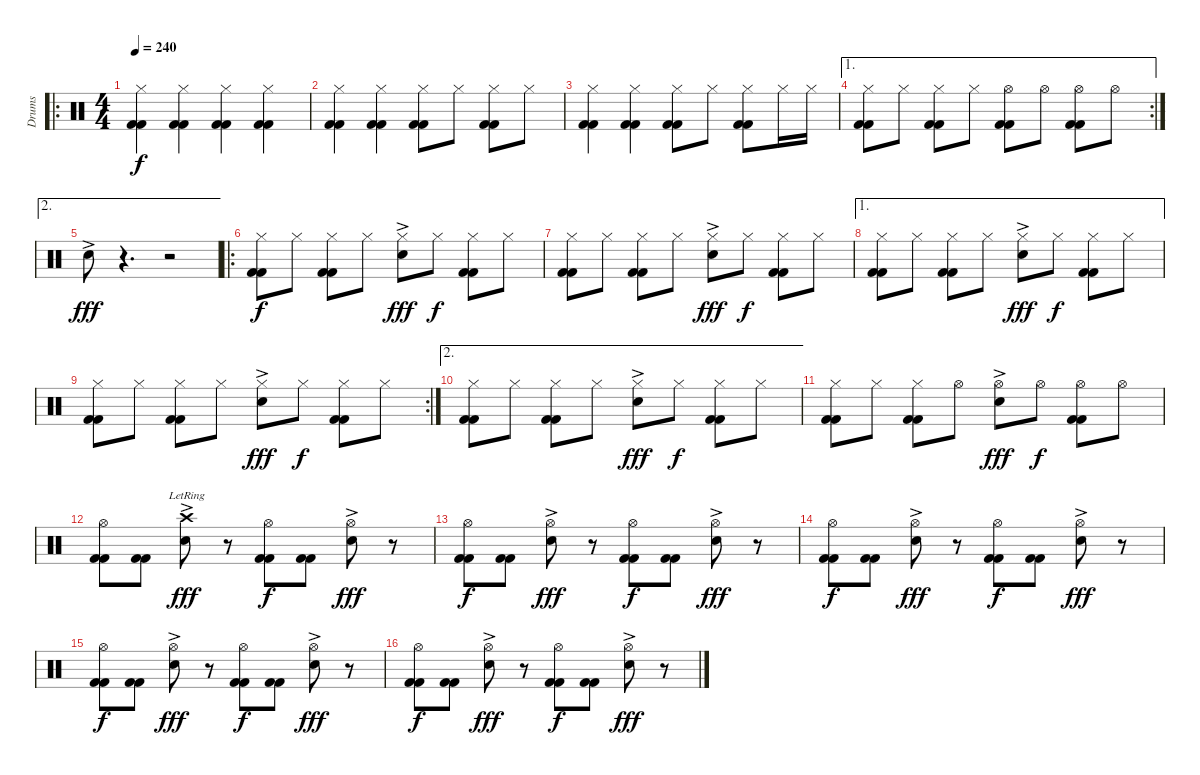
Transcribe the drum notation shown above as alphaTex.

\track ("Drums" "Drums") {instrument percussion}
\staff {score}
\articulation defaults
\ro
\ts (4 4)
\tempo 240
\clef neutral
\ks c
("Hi-Hat (closed)" "Kick (hit) 2" "Kick (hit) 2").4{dy f} ("Hi-Hat (closed)" "Kick (hit) 2" "Kick (hit) 2").4 ("Hi-Hat (closed)" "Kick (hit) 2" "Kick (hit) 2").4 ("Hi-Hat (closed)" "Kick (hit) 2" "Kick (hit) 2").4 |
("Hi-Hat (closed)" "Kick (hit) 2" "Kick (hit) 2").4 ("Hi-Hat (closed)" "Kick (hit) 2" "Kick (hit) 2").4 ("Hi-Hat (closed)" "Kick (hit) 2" "Kick (hit) 2").8 "Hi-Hat (closed)".8 ("Hi-Hat (closed)" "Kick (hit) 2" "Kick (hit) 2").8 "Hi-Hat (closed)".8 |
("Hi-Hat (closed)" "Kick (hit) 2" "Kick (hit) 2").4 ("Hi-Hat (closed)" "Kick (hit) 2" "Kick (hit) 2").4 ("Hi-Hat (closed)" "Kick (hit) 2" "Kick (hit) 2").8 "Hi-Hat (closed)".8 ("Hi-Hat (closed)" "Kick (hit) 2" "Kick (hit) 2").8 "Hi-Hat (closed)".16 "Hi-Hat (closed)".16 |
\ae 1
\rc 2
("Hi-Hat (closed)" "Kick (hit) 2" "Kick (hit) 2").8 "Hi-Hat (closed)".8 ("Hi-Hat (closed)" "Kick (hit) 2" "Kick (hit) 2").8 "Hi-Hat (closed)".8 ("Hi-Hat (open)" "Kick (hit) 2" "Kick (hit) 2").8 "Hi-Hat (open)".8 ("Hi-Hat (open)" "Kick (hit) 2" "Kick (hit) 2").8 "Hi-Hat (open)".8 |
\ae 2 "Electric Snare (hit)"{ac}.8{dy fff}
r.4{d} r.2 |
\ro
("Hi-Hat (closed)" "Kick (hit) 2" "Kick (hit) 2").8{dy f} "Hi-Hat (closed)".8 ("Hi-Hat (closed)" "Kick (hit) 2" "Kick (hit) 2").8 "Hi-Hat (closed)".8 ("Hi-Hat (closed)" "Electric Snare (hit)"{ac}).8{dy fff} "Hi-Hat (closed)".8{dy f} ("Hi-Hat (closed)" "Kick (hit) 2" "Kick (hit) 2").8 "Hi-Hat (closed)".8 |
("Hi-Hat (closed)" "Kick (hit) 2" "Kick (hit) 2").8 "Hi-Hat (closed)".8 ("Hi-Hat (closed)" "Kick (hit) 2" "Kick (hit) 2").8 "Hi-Hat (closed)".8 ("Hi-Hat (closed)" "Electric Snare (hit)"{ac}).8{dy fff} "Hi-Hat (closed)".8{dy f} ("Hi-Hat (closed)" "Kick (hit) 2" "Kick (hit) 2").8 "Hi-Hat (closed)".8 |
\ae 1
("Hi-Hat (closed)" "Kick (hit) 2" "Kick (hit) 2").8 "Hi-Hat (closed)".8 ("Hi-Hat (closed)" "Kick (hit) 2" "Kick (hit) 2").8 "Hi-Hat (closed)".8 ("Hi-Hat (closed)" "Electric Snare (hit)"{ac}).8{dy fff} "Hi-Hat (closed)".8{dy f} ("Hi-Hat (closed)" "Kick (hit) 2" "Kick (hit) 2").8 "Hi-Hat (closed)".8 |
\rc 2
("Hi-Hat (closed)" "Kick (hit) 2" "Kick (hit) 2").8 "Hi-Hat (closed)".8 ("Hi-Hat (closed)" "Kick (hit) 2" "Kick (hit) 2").8 "Hi-Hat (closed)".8 ("Hi-Hat (closed)" "Electric Snare (hit)"{ac}).8{dy fff} "Hi-Hat (closed)".8{dy f} ("Hi-Hat (closed)" "Kick (hit) 2" "Kick (hit) 2").8 "Hi-Hat (closed)".8 |
\ae 2
("Hi-Hat (closed)" "Kick (hit) 2" "Kick (hit) 2").8 "Hi-Hat (closed)".8 ("Hi-Hat (closed)" "Kick (hit) 2" "Kick (hit) 2").8 "Hi-Hat (closed)".8 ("Hi-Hat (closed)" "Electric Snare (hit)"{ac}).8{dy fff} "Hi-Hat (closed)".8{dy f} ("Hi-Hat (closed)" "Kick (hit) 2" "Kick (hit) 2").8 "Hi-Hat (closed)".8 |
("Hi-Hat (closed)" "Kick (hit) 2" "Kick (hit) 2").8 "Hi-Hat (closed)".8 ("Hi-Hat (closed)" "Kick (hit) 2" "Kick (hit) 2").8 "Hi-Hat (open)".8 ("Hi-Hat (open)" "Electric Snare (hit)"{ac}).8{dy fff} "Hi-Hat (open)".8{dy f} ("Hi-Hat (open)" "Kick (hit) 2" "Kick (hit) 2").8 "Hi-Hat (open)".8 |
("Hi-Hat (open)" "Kick (hit) 2" "Kick (hit) 2").8 ("Kick (hit) 2" "Kick (hit) 2").8 ("Crash high (hit)"{lr} "Electric Snare (hit)"{ac}).8{dy fff} r.8 ("Hi-Hat (open)" "Kick (hit) 2" "Kick (hit) 2").8{dy f} ("Kick (hit) 2" "Kick (hit) 2").8 ("Hi-Hat (open)" "Electric Snare (hit)"{ac}).8{dy fff} r.8 |
("Hi-Hat (open)" "Kick (hit) 2" "Kick (hit) 2").8{dy f} ("Kick (hit) 2" "Kick (hit) 2").8 ("Hi-Hat (open)" "Electric Snare (hit)"{ac}).8{dy fff} r.8 ("Hi-Hat (open)" "Kick (hit) 2" "Kick (hit) 2").8{dy f} ("Kick (hit) 2" "Kick (hit) 2").8 ("Hi-Hat (open)" "Electric Snare (hit)"{ac}).8{dy fff} r.8 |
("Hi-Hat (open)" "Kick (hit) 2" "Kick (hit) 2").8{dy f} ("Kick (hit) 2" "Kick (hit) 2").8 ("Hi-Hat (open)" "Electric Snare (hit)"{ac}).8{dy fff} r.8 ("Hi-Hat (open)" "Kick (hit) 2" "Kick (hit) 2").8{dy f} ("Kick (hit) 2" "Kick (hit) 2").8 ("Hi-Hat (open)" "Electric Snare (hit)"{ac}).8{dy fff} r.8 |
("Hi-Hat (open)" "Kick (hit) 2" "Kick (hit) 2").8{dy f} ("Kick (hit) 2" "Kick (hit) 2").8 ("Hi-Hat (open)" "Electric Snare (hit)"{ac}).8{dy fff} r.8 ("Hi-Hat (open)" "Kick (hit) 2" "Kick (hit) 2").8{dy f} ("Kick (hit) 2" "Kick (hit) 2").8 ("Hi-Hat (open)" "Electric Snare (hit)"{ac}).8{dy fff} r.8 |
("Hi-Hat (open)" "Kick (hit) 2" "Kick (hit) 2").8{dy f} ("Kick (hit) 2" "Kick (hit) 2").8 ("Hi-Hat (open)" "Electric Snare (hit)"{ac}).8{dy fff} r.8 ("Hi-Hat (open)" "Kick (hit) 2" "Kick (hit) 2").8{dy f} ("Kick (hit) 2" "Kick (hit) 2").8 ("Hi-Hat (open)" "Electric Snare (hit)"{ac}).8{dy fff} r.8
